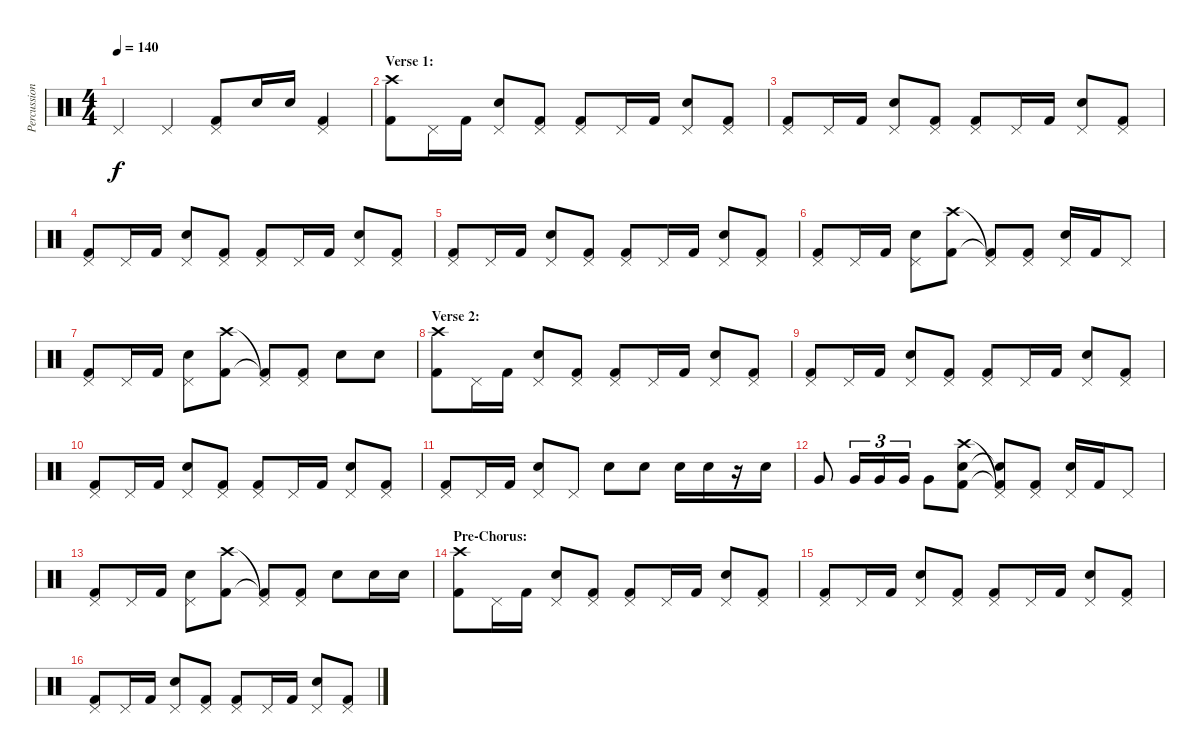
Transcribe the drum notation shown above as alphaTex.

\track ("Percussion" "Percussion") {instrument percussion}
\staff {score}
\articulation defaults
\ts (4 4)
\tempo 140
\clef neutral
\ks c "Pedal Hi-Hat (hit)".4{dy f} "Pedal Hi-Hat (hit)".4
("Pedal Hi-Hat (hit)" "Kick (hit) 2").8 "Snare (hit) 2".16 "Snare (hit) 2".16 ("Pedal Hi-Hat (hit)" "Kick (hit) 2").4 |
\section ("" "Verse 1:")
("Crash high (hit)" "Kick (hit) 2").8 "Pedal Hi-Hat (hit)".16 "Kick (hit) 2".16 ("Pedal Hi-Hat (hit)" "Snare (hit) 2").8 ("Pedal Hi-Hat (hit)" "Kick (hit) 2").8 ("Pedal Hi-Hat (hit)" "Kick (hit) 2").8 "Pedal Hi-Hat (hit)".16 "Kick (hit) 2".16 ("Pedal Hi-Hat (hit)" "Snare (hit) 2").8 ("Pedal Hi-Hat (hit)" "Kick (hit) 2").8 |
("Pedal Hi-Hat (hit)" "Kick (hit) 2").8 "Pedal Hi-Hat (hit)".16 "Kick (hit) 2".16 ("Pedal Hi-Hat (hit)" "Snare (hit) 2").8 ("Pedal Hi-Hat (hit)" "Kick (hit) 2").8 ("Pedal Hi-Hat (hit)" "Kick (hit) 2").8 "Pedal Hi-Hat (hit)".16 "Kick (hit) 2".16 ("Pedal Hi-Hat (hit)" "Snare (hit) 2").8 ("Pedal Hi-Hat (hit)" "Kick (hit) 2").8 |
("Pedal Hi-Hat (hit)" "Kick (hit) 2").8 "Pedal Hi-Hat (hit)".16 "Kick (hit) 2".16 ("Pedal Hi-Hat (hit)" "Snare (hit) 2").8 ("Pedal Hi-Hat (hit)" "Kick (hit) 2").8 ("Pedal Hi-Hat (hit)" "Kick (hit) 2").8 "Pedal Hi-Hat (hit)".16 "Kick (hit) 2".16 ("Pedal Hi-Hat (hit)" "Snare (hit) 2").8 ("Pedal Hi-Hat (hit)" "Kick (hit) 2").8 |
("Pedal Hi-Hat (hit)" "Kick (hit) 2").8 "Pedal Hi-Hat (hit)".16 "Kick (hit) 2".16 ("Pedal Hi-Hat (hit)" "Snare (hit) 2").8 ("Pedal Hi-Hat (hit)" "Kick (hit) 2").8 ("Pedal Hi-Hat (hit)" "Kick (hit) 2").8 "Pedal Hi-Hat (hit)".16 "Kick (hit) 2".16 ("Pedal Hi-Hat (hit)" "Snare (hit) 2").8 ("Pedal Hi-Hat (hit)" "Kick (hit) 2").8 |
("Pedal Hi-Hat (hit)" "Kick (hit) 2").8 "Pedal Hi-Hat (hit)".16 "Kick (hit) 2".16 ("Pedal Hi-Hat (hit)" "Snare (hit) 2").8 ("Crash high (hit)" "Kick (hit) 2").8 ("Pedal Hi-Hat (hit)"{t} "Kick (hit) 2"{t}).8 ("Pedal Hi-Hat (hit)" "Kick (hit) 2").8 ("Pedal Hi-Hat (hit)" "Snare (hit) 2").16 "Kick (hit) 2".16 "Pedal Hi-Hat (hit)".8 |
("Pedal Hi-Hat (hit)" "Kick (hit) 2").8 "Pedal Hi-Hat (hit)".16 "Kick (hit) 2".16 ("Pedal Hi-Hat (hit)" "Snare (hit) 2").8 ("Crash high (hit)" "Kick (hit) 2").8 ("Pedal Hi-Hat (hit)"{t} "Kick (hit) 2"{t}).8 ("Pedal Hi-Hat (hit)" "Kick (hit) 2").8 "Snare (hit) 2".8 "Snare (hit) 2".8 |
\section ("" "Verse 2:")
("Crash high (hit)" "Kick (hit) 2").8 "Pedal Hi-Hat (hit)".16 "Kick (hit) 2".16 ("Pedal Hi-Hat (hit)" "Snare (hit) 2").8 ("Pedal Hi-Hat (hit)" "Kick (hit) 2").8 ("Pedal Hi-Hat (hit)" "Kick (hit) 2").8 "Pedal Hi-Hat (hit)".16 "Kick (hit) 2".16 ("Pedal Hi-Hat (hit)" "Snare (hit) 2").8 ("Pedal Hi-Hat (hit)" "Kick (hit) 2").8 |
("Pedal Hi-Hat (hit)" "Kick (hit) 2").8 "Pedal Hi-Hat (hit)".16 "Kick (hit) 2".16 ("Pedal Hi-Hat (hit)" "Snare (hit) 2").8 ("Pedal Hi-Hat (hit)" "Kick (hit) 2").8 ("Pedal Hi-Hat (hit)" "Kick (hit) 2").8 "Pedal Hi-Hat (hit)".16 "Kick (hit) 2".16 ("Pedal Hi-Hat (hit)" "Snare (hit) 2").8 ("Pedal Hi-Hat (hit)" "Kick (hit) 2").8 |
("Pedal Hi-Hat (hit)" "Kick (hit) 2").8 "Pedal Hi-Hat (hit)".16 "Kick (hit) 2".16 ("Pedal Hi-Hat (hit)" "Snare (hit) 2").8 ("Pedal Hi-Hat (hit)" "Kick (hit) 2").8 ("Pedal Hi-Hat (hit)" "Kick (hit) 2").8 "Pedal Hi-Hat (hit)".16 "Kick (hit) 2".16 ("Pedal Hi-Hat (hit)" "Snare (hit) 2").8 ("Pedal Hi-Hat (hit)" "Kick (hit) 2").8 |
("Pedal Hi-Hat (hit)" "Kick (hit) 2").8 "Pedal Hi-Hat (hit)".16 "Kick (hit) 2".16 ("Pedal Hi-Hat (hit)" "Snare (hit) 2").8 "Pedal Hi-Hat (hit)".8 "Snare (hit) 2".8 "Snare (hit) 2".8 "Snare (hit) 2".16 "Snare (hit) 2".16 r.16 "Snare (hit) 2".16 |
"Very Low Tom (hit)".8 "Very Low Tom (hit)".16{tu (3 2)} "Very Low Tom (hit)".16{tu (3 2)} "Very Low Tom (hit)".16{tu (3 2)} "Very Low Tom (hit)".8 ("Crash high (hit)" "Snare (hit) 2" "Kick (hit) 2").8 ("Pedal Hi-Hat (hit)"{t} "Snare (hit)"{t} "Kick (hit) 2"{t}).8 ("Pedal Hi-Hat (hit)" "Kick (hit) 2").8 ("Pedal Hi-Hat (hit)" "Snare (hit) 2").16 "Kick (hit) 2".16 "Pedal Hi-Hat (hit)".8 |
("Pedal Hi-Hat (hit)" "Kick (hit) 2").8 "Pedal Hi-Hat (hit)".16 "Kick (hit) 2".16 ("Pedal Hi-Hat (hit)" "Snare (hit) 2").8 ("Crash high (hit)" "Kick (hit) 2").8 ("Pedal Hi-Hat (hit)"{t} "Kick (hit) 2"{t}).8 ("Pedal Hi-Hat (hit)" "Kick (hit) 2").8 "Snare (hit) 2".8 "Snare (hit) 2".16 "Snare (hit) 2".16 |
\section ("" "Pre-Chorus:")
("Crash high (hit)" "Kick (hit) 2").8 "Pedal Hi-Hat (hit)".16 "Kick (hit) 2".16 ("Pedal Hi-Hat (hit)" "Snare (hit) 2").8 ("Pedal Hi-Hat (hit)" "Kick (hit) 2").8 ("Pedal Hi-Hat (hit)" "Kick (hit) 2").8 "Pedal Hi-Hat (hit)".16 "Kick (hit) 2".16 ("Pedal Hi-Hat (hit)" "Snare (hit) 2").8 ("Pedal Hi-Hat (hit)" "Kick (hit) 2").8 |
("Pedal Hi-Hat (hit)" "Kick (hit) 2").8 "Pedal Hi-Hat (hit)".16 "Kick (hit) 2".16 ("Pedal Hi-Hat (hit)" "Snare (hit) 2").8 ("Pedal Hi-Hat (hit)" "Kick (hit) 2").8 ("Pedal Hi-Hat (hit)" "Kick (hit) 2").8 "Pedal Hi-Hat (hit)".16 "Kick (hit) 2".16 ("Pedal Hi-Hat (hit)" "Snare (hit) 2").8 ("Pedal Hi-Hat (hit)" "Kick (hit) 2").8 |
("Pedal Hi-Hat (hit)" "Kick (hit) 2").8 "Pedal Hi-Hat (hit)".16 "Kick (hit) 2".16 ("Pedal Hi-Hat (hit)" "Snare (hit) 2").8 ("Pedal Hi-Hat (hit)" "Kick (hit) 2").8 ("Pedal Hi-Hat (hit)" "Kick (hit) 2").8 "Pedal Hi-Hat (hit)".16 "Kick (hit) 2".16 ("Pedal Hi-Hat (hit)" "Snare (hit) 2").8 ("Pedal Hi-Hat (hit)" "Kick (hit) 2").8
